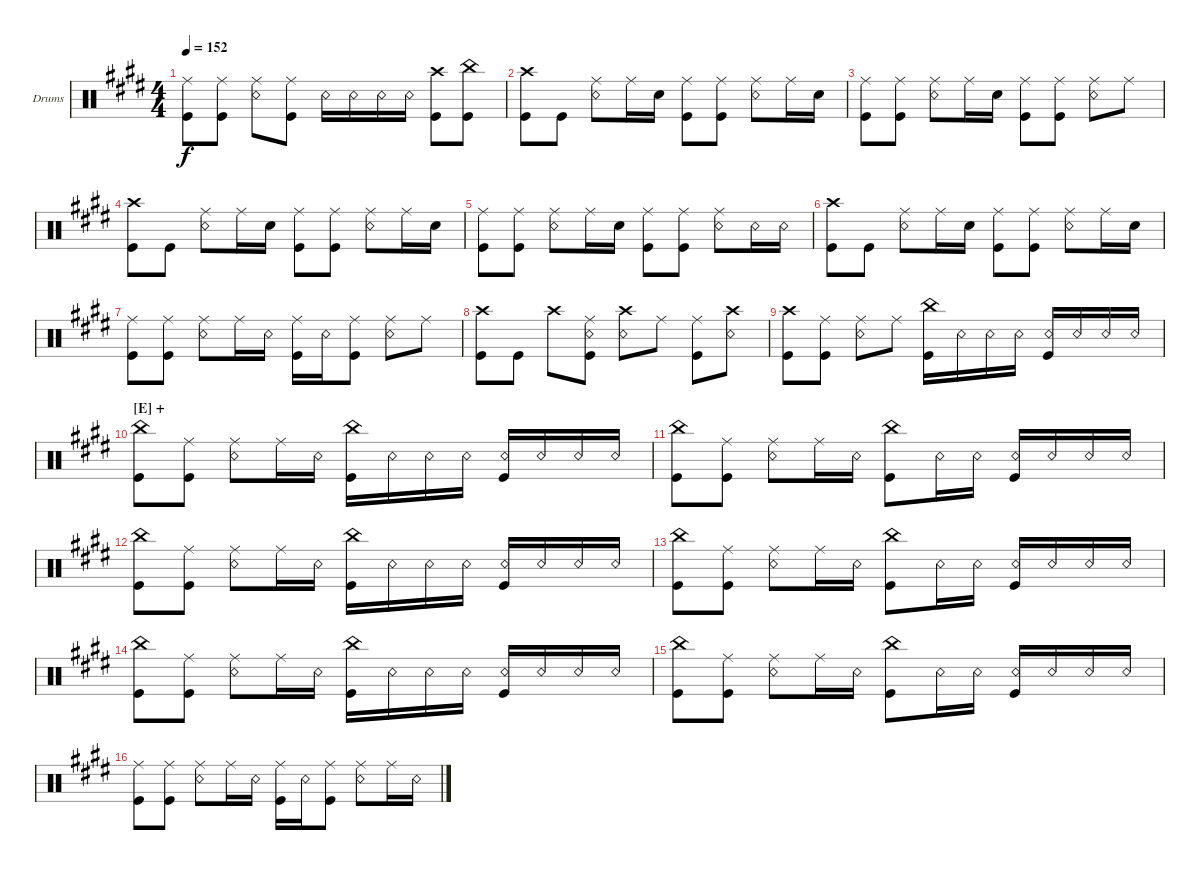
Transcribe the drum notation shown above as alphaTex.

\bracketExtendMode groupsimilarinstruments
\firstSystemTrackNameOrientation horizontal
\otherSystemsTrackNameOrientation horizontal
\track ("Ichigo" "Drums") {instrument percussion}
\staff {score}
\articulation defaults
\ts (4 4)
\tempo 152
\clef neutral
\ks e
("Kick (hit)" "Ride (middle)").8{dy f} ("Kick (hit)" "Ride (middle)").8 ("Snare (rim shot)" "Ride (middle)").8 ("Ride (middle)" "Kick (hit)").8 "Snare (rim shot)".16 "Snare (rim shot)".16 "Snare (rim shot)".16 "Snare (rim shot)".16 ("Kick (hit)" "Crash high (hit)").8 ("Kick (hit)" "China (hit)").8 |
("Crash high (hit)" "Kick (hit)").8 "Kick (hit)".8 ("Snare (rim shot)" "Ride (middle)").8 "Ride (middle)".16 "Snare (hit) 2".16 ("Kick (hit)" "Ride (middle)").8 ("Kick (hit)" "Ride (middle)").8 ("Snare (rim shot)" "Ride (middle)").8 "Ride (middle)".16 "Snare (hit) 2".16 |
("Kick (hit)" "Ride (middle)").8 ("Kick (hit)" "Ride (middle)").8 ("Snare (rim shot)" "Ride (middle)").8 "Ride (middle)".16 "Snare (hit) 2".16 ("Kick (hit)" "Ride (middle)").8 ("Kick (hit)" "Ride (middle)").8 ("Snare (rim shot)" "Ride (middle)").8 "Ride (middle)".8 |
("Crash high (hit)" "Kick (hit)").8 "Kick (hit)".8 ("Snare (rim shot)" "Ride (middle)").8 "Ride (middle)".16 "Snare (hit) 2".16 ("Kick (hit)" "Ride (middle)").8 ("Kick (hit)" "Ride (middle)").8 ("Snare (rim shot)" "Ride (middle)").8 "Ride (middle)".16 "Snare (hit) 2".16 |
("Kick (hit)" "Ride (middle)").8 ("Kick (hit)" "Ride (middle)").8 ("Snare (rim shot)" "Ride (middle)").8 "Ride (middle)".16 "Snare (hit) 2".16 ("Kick (hit)" "Ride (middle)").8 ("Kick (hit)" "Ride (middle)").8 ("Snare (rim shot)" "Ride (middle)").8 "Snare (rim shot)".16 "Snare (rim shot)".16 |
("Crash high (hit)" "Kick (hit)").8 "Kick (hit)".8 ("Snare (rim shot)" "Ride (middle)").8 "Ride (middle)".16 "Snare (hit) 2".16 ("Kick (hit)" "Ride (middle)").8 ("Kick (hit)" "Ride (middle)").8 ("Snare (rim shot)" "Ride (middle)").8 "Ride (middle)".16 "Snare (hit) 2".16 |
("Kick (hit)" "Ride (middle)").8 ("Kick (hit)" "Ride (middle)").8 ("Snare (rim shot)" "Ride (middle)").8 "Ride (middle)".16 "Snare (rim shot)".16 ("Kick (hit)" "Ride (middle)").16 "Snare (rim shot)".16 ("Kick (hit)" "Ride (middle)").8 ("Snare (rim shot)" "Ride (middle)").8 "Ride (middle)".8 |
("Kick (hit)" "Crash high (hit)").8 "Kick (hit)".8 "Crash high (hit)".8 ("Ride (middle)" "Snare (rim shot)" "Kick (hit)").8 ("Snare (rim shot)" "Crash high (hit)").8 "Ride (middle)".8 ("Ride (middle)" "Kick (hit)").8 ("Snare (rim shot)" "Crash high (hit)").8 |
("Kick (hit)" "Crash high (hit)").8 ("Kick (hit)" "Ride (middle)").8 ("Snare (rim shot)" "Ride (middle)").8 "Ride (middle)".8 ("Kick (hit)" "China (hit)").16 "Snare (rim shot)".16 "Snare (rim shot)".16 "Snare (rim shot)".16 ("Snare (rim shot)" "Kick (hit)").16 "Snare (rim shot)".16 "Snare (rim shot)".16 "Snare (rim shot)".16 |
\section ("E" "+")
("Kick (hit)" "China (hit)").8 ("Kick (hit)" "Ride (middle)").8 ("Snare (rim shot)" "Ride (middle)").8 "Ride (middle)".16 "Snare (rim shot)".16 ("Kick (hit)" "China (hit)").16 "Snare (rim shot)".16 "Snare (rim shot)".16 "Snare (rim shot)".16 ("Snare (rim shot)" "Kick (hit)").16 "Snare (rim shot)".16 "Snare (rim shot)".16 "Snare (rim shot)".16 |
("Kick (hit)" "China (hit)").8 ("Kick (hit)" "Ride (middle)").8 ("Snare (rim shot)" "Ride (middle)").8 "Ride (middle)".16 "Snare (rim shot)".16 ("Kick (hit)" "China (hit)").8 "Snare (rim shot)".16 "Snare (rim shot)".16 ("Snare (rim shot)" "Kick (hit)").16 "Snare (rim shot)".16 "Snare (rim shot)".16 "Snare (rim shot)".16 |
("Kick (hit)" "China (hit)").8 ("Kick (hit)" "Ride (middle)").8 ("Snare (rim shot)" "Ride (middle)").8 "Ride (middle)".16 "Snare (rim shot)".16 ("Kick (hit)" "China (hit)").16 "Snare (rim shot)".16 "Snare (rim shot)".16 "Snare (rim shot)".16 ("Snare (rim shot)" "Kick (hit)").16 "Snare (rim shot)".16 "Snare (rim shot)".16 "Snare (rim shot)".16 |
("Kick (hit)" "China (hit)").8 ("Kick (hit)" "Ride (middle)").8 ("Snare (rim shot)" "Ride (middle)").8 "Ride (middle)".16 "Snare (rim shot)".16 ("Kick (hit)" "China (hit)").8 "Snare (rim shot)".16 "Snare (rim shot)".16 ("Snare (rim shot)" "Kick (hit)").16 "Snare (rim shot)".16 "Snare (rim shot)".16 "Snare (rim shot)".16 |
("Kick (hit)" "China (hit)").8 ("Kick (hit)" "Ride (middle)").8 ("Snare (rim shot)" "Ride (middle)").8 "Ride (middle)".16 "Snare (rim shot)".16 ("Kick (hit)" "China (hit)").16 "Snare (rim shot)".16 "Snare (rim shot)".16 "Snare (rim shot)".16 ("Snare (rim shot)" "Kick (hit)").16 "Snare (rim shot)".16 "Snare (rim shot)".16 "Snare (rim shot)".16 |
("Kick (hit)" "China (hit)").8 ("Kick (hit)" "Ride (middle)").8 ("Snare (rim shot)" "Ride (middle)").8 "Ride (middle)".16 "Snare (rim shot)".16 ("Kick (hit)" "China (hit)").8 "Snare (rim shot)".16 "Snare (rim shot)".16 ("Snare (rim shot)" "Kick (hit)").16 "Snare (rim shot)".16 "Snare (rim shot)".16 "Snare (rim shot)".16 |
("Kick (hit)" "Ride (middle)").8 ("Kick (hit)" "Ride (middle)").8 ("Snare (rim shot)" "Ride (middle)").8 "Ride (middle)".16 "Snare (rim shot)".16 ("Kick (hit)" "Ride (middle)").16 "Snare (rim shot)".16 ("Kick (hit)" "Ride (middle)").8 ("Snare (rim shot)" "Ride (middle)").8 "Ride (middle)".16 "Snare (rim shot)".16
